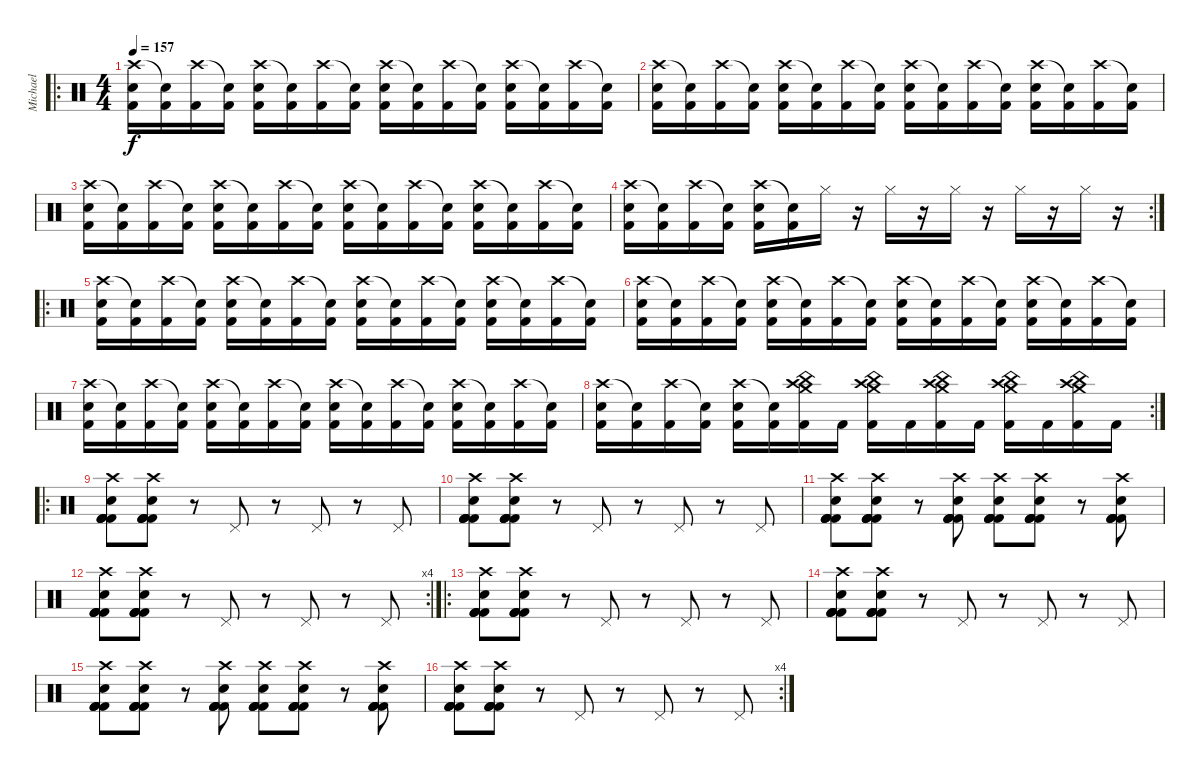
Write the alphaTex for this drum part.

\track ("Michael" "Michael") {instrument percussion}
\staff {score}
\articulation defaults
\ro
\ts (4 4)
\tempo 157
\clef neutral
\ks c
("Crash high (hit)" "Electric Snare (hit)" "Kick (hit) 2").16{dy f} ("Snare (hit)"{t} "Kick (hit) 2").16 ("Crash high (hit)" "Kick (hit) 2").16 ("Snare (hit)"{t} "Kick (hit) 2").16 ("Crash high (hit)" "Electric Snare (hit)" "Kick (hit) 2").16 ("Snare (hit)"{t} "Kick (hit) 2").16 ("Crash high (hit)" "Kick (hit) 2").16 ("Snare (hit)"{t} "Kick (hit) 2").16 ("Crash high (hit)" "Electric Snare (hit)" "Kick (hit) 2").16 ("Snare (hit)"{t} "Kick (hit) 2").16 ("Crash high (hit)" "Kick (hit) 2").16 ("Snare (hit)"{t} "Kick (hit) 2").16 ("Crash high (hit)" "Electric Snare (hit)" "Kick (hit) 2").16 ("Snare (hit)"{t} "Kick (hit) 2").16 ("Crash high (hit)" "Kick (hit) 2").16 ("Snare (hit)"{t} "Kick (hit) 2").16 |
("Crash high (hit)" "Electric Snare (hit)" "Kick (hit) 2").16 ("Snare (hit)"{t} "Kick (hit) 2").16 ("Crash high (hit)" "Kick (hit) 2").16 ("Snare (hit)"{t} "Kick (hit) 2").16 ("Crash high (hit)" "Electric Snare (hit)" "Kick (hit) 2").16 ("Snare (hit)"{t} "Kick (hit) 2").16 ("Crash high (hit)" "Kick (hit) 2").16 ("Snare (hit)"{t} "Kick (hit) 2").16 ("Crash high (hit)" "Electric Snare (hit)" "Kick (hit) 2").16 ("Snare (hit)"{t} "Kick (hit) 2").16 ("Crash high (hit)" "Kick (hit) 2").16 ("Snare (hit)"{t} "Kick (hit) 2").16 ("Crash high (hit)" "Electric Snare (hit)" "Kick (hit) 2").16 ("Snare (hit)"{t} "Kick (hit) 2").16 ("Crash high (hit)" "Kick (hit) 2").16 ("Snare (hit)"{t} "Kick (hit) 2").16 |
("Crash high (hit)" "Electric Snare (hit)" "Kick (hit) 2").16 ("Snare (hit)"{t} "Kick (hit) 2").16 ("Crash high (hit)" "Kick (hit) 2").16 ("Snare (hit)"{t} "Kick (hit) 2").16 ("Crash high (hit)" "Electric Snare (hit)" "Kick (hit) 2").16 ("Snare (hit)"{t} "Kick (hit) 2").16 ("Crash high (hit)" "Kick (hit) 2").16 ("Snare (hit)"{t} "Kick (hit) 2").16 ("Crash high (hit)" "Electric Snare (hit)" "Kick (hit) 2").16 ("Snare (hit)"{t} "Kick (hit) 2").16 ("Crash high (hit)" "Kick (hit) 2").16 ("Snare (hit)"{t} "Kick (hit) 2").16 ("Crash high (hit)" "Electric Snare (hit)" "Kick (hit) 2").16 ("Snare (hit)"{t} "Kick (hit) 2").16 ("Crash high (hit)" "Kick (hit) 2").16 ("Snare (hit)"{t} "Kick (hit) 2").16 |
\rc 2
("Crash high (hit)" "Electric Snare (hit)" "Kick (hit) 2").16 ("Snare (hit)"{t} "Kick (hit) 2").16 ("Crash high (hit)" "Kick (hit) 2").16 ("Snare (hit)"{t} "Kick (hit) 2").16 ("Crash high (hit)" "Electric Snare (hit)" "Kick (hit) 2").16 ("Snare (hit)"{t} "Kick (hit) 2").16 "Hi-Hat (closed)".16 r.16 "Hi-Hat (closed)".16 r.16 "Hi-Hat (closed)".16 r.16 "Hi-Hat (closed)".16 r.16 "Hi-Hat (closed)".16 r.16 |
\ro
("Crash high (hit)" "Electric Snare (hit)" "Kick (hit) 2").16 ("Snare (hit)"{t} "Kick (hit) 2").16 ("Crash high (hit)" "Kick (hit) 2").16 ("Snare (hit)"{t} "Kick (hit) 2").16 ("Crash high (hit)" "Electric Snare (hit)" "Kick (hit) 2").16 ("Snare (hit)"{t} "Kick (hit) 2").16 ("Crash high (hit)" "Kick (hit) 2").16 ("Snare (hit)"{t} "Kick (hit) 2").16 ("Crash high (hit)" "Electric Snare (hit)" "Kick (hit) 2").16 ("Snare (hit)"{t} "Kick (hit) 2").16 ("Crash high (hit)" "Kick (hit) 2").16 ("Snare (hit)"{t} "Kick (hit) 2").16 ("Crash high (hit)" "Electric Snare (hit)" "Kick (hit) 2").16 ("Snare (hit)"{t} "Kick (hit) 2").16 ("Crash high (hit)" "Kick (hit) 2").16 ("Snare (hit)"{t} "Kick (hit) 2").16 |
("Crash high (hit)" "Electric Snare (hit)" "Kick (hit) 2").16 ("Snare (hit)"{t} "Kick (hit) 2").16 ("Crash high (hit)" "Kick (hit) 2").16 ("Snare (hit)"{t} "Kick (hit) 2").16 ("Crash high (hit)" "Electric Snare (hit)" "Kick (hit) 2").16 ("Snare (hit)"{t} "Kick (hit) 2").16 ("Crash high (hit)" "Kick (hit) 2").16 ("Snare (hit)"{t} "Kick (hit) 2").16 ("Crash high (hit)" "Electric Snare (hit)" "Kick (hit) 2").16 ("Snare (hit)"{t} "Kick (hit) 2").16 ("Crash high (hit)" "Kick (hit) 2").16 ("Snare (hit)"{t} "Kick (hit) 2").16 ("Crash high (hit)" "Electric Snare (hit)" "Kick (hit) 2").16 ("Snare (hit)"{t} "Kick (hit) 2").16 ("Crash high (hit)" "Kick (hit) 2").16 ("Snare (hit)"{t} "Kick (hit) 2").16 |
("Crash high (hit)" "Electric Snare (hit)" "Kick (hit) 2").16 ("Snare (hit)"{t} "Kick (hit) 2").16 ("Crash high (hit)" "Kick (hit) 2").16 ("Snare (hit)"{t} "Kick (hit) 2").16 ("Crash high (hit)" "Electric Snare (hit)" "Kick (hit) 2").16 ("Snare (hit)"{t} "Kick (hit) 2").16 ("Crash high (hit)" "Kick (hit) 2").16 ("Snare (hit)"{t} "Kick (hit) 2").16 ("Crash high (hit)" "Electric Snare (hit)" "Kick (hit) 2").16 ("Snare (hit)"{t} "Kick (hit) 2").16 ("Crash high (hit)" "Kick (hit) 2").16 ("Snare (hit)"{t} "Kick (hit) 2").16 ("Crash high (hit)" "Electric Snare (hit)" "Kick (hit) 2").16 ("Snare (hit)"{t} "Kick (hit) 2").16 ("Crash high (hit)" "Kick (hit) 2").16 ("Snare (hit)"{t} "Kick (hit) 2").16 |
\rc 2
("Crash high (hit)" "Electric Snare (hit)" "Kick (hit) 2").16 ("Snare (hit)"{t} "Kick (hit) 2").16 ("Crash high (hit)" "Kick (hit) 2").16 ("Snare (hit)"{t} "Kick (hit) 2").16 ("Crash high (hit)" "Electric Snare (hit)" "Kick (hit) 2").16 ("Snare (hit)"{t} "Kick (hit) 2").16 ("Crash high (hit)" "China (hit)" "Crash medium (hit)" "Kick (hit) 2").16 "Kick (hit) 2".16 ("Crash high (hit)" "China (hit)" "Crash medium (hit)" "Kick (hit) 2").16 "Kick (hit) 2".16 ("Crash high (hit)" "China (hit)" "Crash medium (hit)" "Kick (hit) 2").16 "Kick (hit) 2".16 ("Crash high (hit)" "China (hit)" "Crash medium (hit)" "Kick (hit) 2").16 "Kick (hit) 2".16 ("Crash high (hit)" "China (hit)" "Crash medium (hit)" "Kick (hit) 2").16 "Kick (hit) 2".16 |
\ro
("Crash high (hit)" "Kick (hit) 2" "Kick (hit) 2" "Kick (hit) 2" "Kick (hit) 2" "Electric Snare (hit)").8 ("Crash high (hit)" "Kick (hit) 2" "Kick (hit) 2" "Kick (hit) 2" "Kick (hit) 2" "Electric Snare (hit)").8 r.8 "Pedal Hi-Hat (hit)".8 r.8 "Pedal Hi-Hat (hit)".8 r.8 "Pedal Hi-Hat (hit)".8 |
("Crash high (hit)" "Kick (hit) 2" "Kick (hit) 2" "Kick (hit) 2" "Kick (hit) 2" "Electric Snare (hit)").8 ("Crash high (hit)" "Kick (hit) 2" "Kick (hit) 2" "Kick (hit) 2" "Kick (hit) 2" "Electric Snare (hit)").8 r.8 "Pedal Hi-Hat (hit)".8 r.8 "Pedal Hi-Hat (hit)".8 r.8 "Pedal Hi-Hat (hit)".8 |
("Crash high (hit)" "Kick (hit) 2" "Kick (hit) 2" "Kick (hit) 2" "Kick (hit) 2" "Electric Snare (hit)").8 ("Crash high (hit)" "Kick (hit) 2" "Kick (hit) 2" "Kick (hit) 2" "Kick (hit) 2" "Electric Snare (hit)").8 r.8 ("Crash high (hit)" "Kick (hit) 2" "Kick (hit) 2" "Kick (hit) 2" "Kick (hit) 2" "Electric Snare (hit)").8 ("Crash high (hit)" "Kick (hit) 2" "Kick (hit) 2" "Kick (hit) 2" "Kick (hit) 2" "Electric Snare (hit)").8 ("Crash high (hit)" "Kick (hit) 2" "Kick (hit) 2" "Kick (hit) 2" "Kick (hit) 2" "Electric Snare (hit)").8 r.8 ("Crash high (hit)" "Kick (hit) 2" "Kick (hit) 2" "Kick (hit) 2" "Kick (hit) 2" "Electric Snare (hit)").8 |
\rc 4
("Crash high (hit)" "Kick (hit) 2" "Kick (hit) 2" "Kick (hit) 2" "Kick (hit) 2" "Electric Snare (hit)").8 ("Crash high (hit)" "Kick (hit) 2" "Kick (hit) 2" "Kick (hit) 2" "Kick (hit) 2" "Electric Snare (hit)").8 r.8 "Pedal Hi-Hat (hit)".8 r.8 "Pedal Hi-Hat (hit)".8 r.8 "Pedal Hi-Hat (hit)".8 |
\ro
("Crash high (hit)" "Kick (hit) 2" "Kick (hit) 2" "Kick (hit) 2" "Kick (hit) 2" "Electric Snare (hit)").8 ("Crash high (hit)" "Kick (hit) 2" "Kick (hit) 2" "Kick (hit) 2" "Kick (hit) 2" "Electric Snare (hit)").8 r.8 "Pedal Hi-Hat (hit)".8 r.8 "Pedal Hi-Hat (hit)".8 r.8 "Pedal Hi-Hat (hit)".8 |
("Crash high (hit)" "Kick (hit) 2" "Kick (hit) 2" "Kick (hit) 2" "Kick (hit) 2" "Electric Snare (hit)").8 ("Crash high (hit)" "Kick (hit) 2" "Kick (hit) 2" "Kick (hit) 2" "Kick (hit) 2" "Electric Snare (hit)").8 r.8 "Pedal Hi-Hat (hit)".8 r.8 "Pedal Hi-Hat (hit)".8 r.8 "Pedal Hi-Hat (hit)".8 |
("Crash high (hit)" "Kick (hit) 2" "Kick (hit) 2" "Kick (hit) 2" "Kick (hit) 2" "Electric Snare (hit)").8 ("Crash high (hit)" "Kick (hit) 2" "Kick (hit) 2" "Kick (hit) 2" "Kick (hit) 2" "Electric Snare (hit)").8 r.8 ("Crash high (hit)" "Kick (hit) 2" "Kick (hit) 2" "Kick (hit) 2" "Kick (hit) 2" "Electric Snare (hit)").8 ("Crash high (hit)" "Kick (hit) 2" "Kick (hit) 2" "Kick (hit) 2" "Kick (hit) 2" "Electric Snare (hit)").8 ("Crash high (hit)" "Kick (hit) 2" "Kick (hit) 2" "Kick (hit) 2" "Kick (hit) 2" "Electric Snare (hit)").8 r.8 ("Crash high (hit)" "Kick (hit) 2" "Kick (hit) 2" "Kick (hit) 2" "Kick (hit) 2" "Electric Snare (hit)").8 |
\rc 4
("Crash high (hit)" "Kick (hit) 2" "Kick (hit) 2" "Kick (hit) 2" "Kick (hit) 2" "Electric Snare (hit)").8 ("Crash high (hit)" "Kick (hit) 2" "Kick (hit) 2" "Kick (hit) 2" "Kick (hit) 2" "Electric Snare (hit)").8 r.8 "Pedal Hi-Hat (hit)".8 r.8 "Pedal Hi-Hat (hit)".8 r.8 "Pedal Hi-Hat (hit)".8
